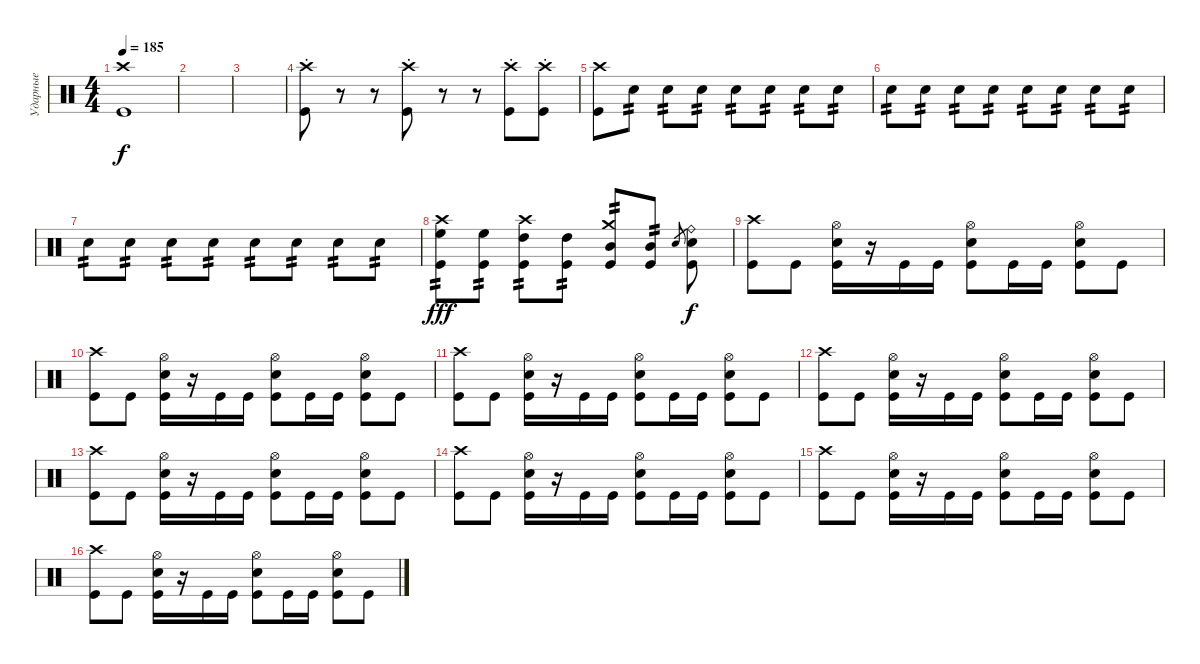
\track ("Ударные" "Ударные") {instrument percussion}
\staff {score}
\articulation defaults
\ts (4 4)
\tempo 185
\clef neutral
\ks c
("Crash high (hit)" "Kick (hit)").1{dy f} |
|
|
("Crash high (hit)"{st} "Kick (hit)").8 r.8 r.8 ("Crash high (hit)"{st} "Kick (hit)").8 r.8 r.8 ("Crash high (hit)"{st} "Kick (hit)").8 ("Crash high (hit)"{st} "Kick (hit)").8 |
("Crash high (hit)" "Kick (hit)").8 "Snare (hit) 2".8{tp 2} "Snare (hit) 2".8{tp 2} "Snare (hit) 2".8{tp 2} "Snare (hit) 2".8{tp 2} "Snare (hit) 2".8{tp 2} "Snare (hit) 2".8{tp 2} "Snare (hit) 2".8{tp 2} |
"Snare (hit) 2".8{tp 2} "Snare (hit) 2".8{tp 2} "Snare (hit) 2".8{tp 2} "Snare (hit) 2".8{tp 2} "Snare (hit) 2".8{tp 2} "Snare (hit) 2".8{tp 2} "Snare (hit) 2".8{tp 2} "Snare (hit) 2".8{tp 2} |
"Snare (hit) 2".8{tp 2} "Snare (hit) 2".8{tp 2} "Snare (hit) 2".8{tp 2} "Snare (hit) 2".8{tp 2} "Snare (hit) 2".8{tp 2} "Snare (hit) 2".8{tp 2} "Snare (hit) 2".8{tp 2} "Snare (hit) 2".8{tp 2} |
("Crash high (hit)" "High Floor Tom (hit)" "Kick (hit)").8{tp 2 dy fff} ("High Floor Tom (hit)" "Kick (hit)").8{tp 2} ("Crash high (hit)" "High Tom (hit)" "Kick (hit)").8{tp 2} ("High Tom (hit)" "Kick (hit)").8{tp 2} ("Crash medium (hit)" "Mid Tom (hit)" "Kick (hit)").8{tp 2} ("Mid Tom (hit)" "Kick (hit)").8{tp 2} "Snare (hit) 2".8{gr} ("Ride (bell)" "Snare (hit) 2" "Kick (hit)").8{dy f} |
("Kick (hit)" "Crash high (hit)").8 "Kick (hit)".8 ("Kick (hit)" "Snare (hit) 2" "Hi-Hat (open)").16 r.16 "Kick (hit)".16 "Kick (hit)".16 ("Kick (hit)" "Snare (hit) 2" "Hi-Hat (open)").8 "Kick (hit)".16 "Kick (hit)".16 ("Kick (hit)" "Snare (hit) 2" "Hi-Hat (open)").8 "Kick (hit)".8 |
("Kick (hit)" "Crash high (hit)").8 "Kick (hit)".8 ("Kick (hit)" "Snare (hit) 2" "Hi-Hat (open)").16 r.16 "Kick (hit)".16 "Kick (hit)".16 ("Kick (hit)" "Snare (hit) 2" "Hi-Hat (open)").8 "Kick (hit)".16 "Kick (hit)".16 ("Kick (hit)" "Snare (hit) 2" "Hi-Hat (open)").8 "Kick (hit)".8 |
("Kick (hit)" "Crash high (hit)").8 "Kick (hit)".8 ("Kick (hit)" "Snare (hit) 2" "Hi-Hat (open)").16 r.16 "Kick (hit)".16 "Kick (hit)".16 ("Kick (hit)" "Snare (hit) 2" "Hi-Hat (open)").8 "Kick (hit)".16 "Kick (hit)".16 ("Kick (hit)" "Snare (hit) 2" "Hi-Hat (open)").8 "Kick (hit)".8 |
("Kick (hit)" "Crash high (hit)").8 "Kick (hit)".8 ("Kick (hit)" "Snare (hit) 2" "Hi-Hat (open)").16 r.16 "Kick (hit)".16 "Kick (hit)".16 ("Kick (hit)" "Snare (hit) 2" "Hi-Hat (open)").8 "Kick (hit)".16 "Kick (hit)".16 ("Kick (hit)" "Snare (hit) 2" "Hi-Hat (open)").8 "Kick (hit)".8 |
("Kick (hit)" "Crash high (hit)").8 "Kick (hit)".8 ("Kick (hit)" "Snare (hit) 2" "Hi-Hat (open)").16 r.16 "Kick (hit)".16 "Kick (hit)".16 ("Kick (hit)" "Snare (hit) 2" "Hi-Hat (open)").8 "Kick (hit)".16 "Kick (hit)".16 ("Kick (hit)" "Snare (hit) 2" "Hi-Hat (open)").8 "Kick (hit)".8 |
("Kick (hit)" "Crash high (hit)").8 "Kick (hit)".8 ("Kick (hit)" "Snare (hit) 2" "Hi-Hat (open)").16 r.16 "Kick (hit)".16 "Kick (hit)".16 ("Kick (hit)" "Snare (hit) 2" "Hi-Hat (open)").8 "Kick (hit)".16 "Kick (hit)".16 ("Kick (hit)" "Snare (hit) 2" "Hi-Hat (open)").8 "Kick (hit)".8 |
("Kick (hit)" "Crash high (hit)").8 "Kick (hit)".8 ("Kick (hit)" "Snare (hit) 2" "Hi-Hat (open)").16 r.16 "Kick (hit)".16 "Kick (hit)".16 ("Kick (hit)" "Snare (hit) 2" "Hi-Hat (open)").8 "Kick (hit)".16 "Kick (hit)".16 ("Kick (hit)" "Snare (hit) 2" "Hi-Hat (open)").8 "Kick (hit)".8 |
("Kick (hit)" "Crash high (hit)").8 "Kick (hit)".8 ("Kick (hit)" "Snare (hit) 2" "Hi-Hat (open)").16 r.16 "Kick (hit)".16 "Kick (hit)".16 ("Kick (hit)" "Snare (hit) 2" "Hi-Hat (open)").8 "Kick (hit)".16 "Kick (hit)".16 ("Kick (hit)" "Snare (hit) 2" "Hi-Hat (open)").8 "Kick (hit)".8
